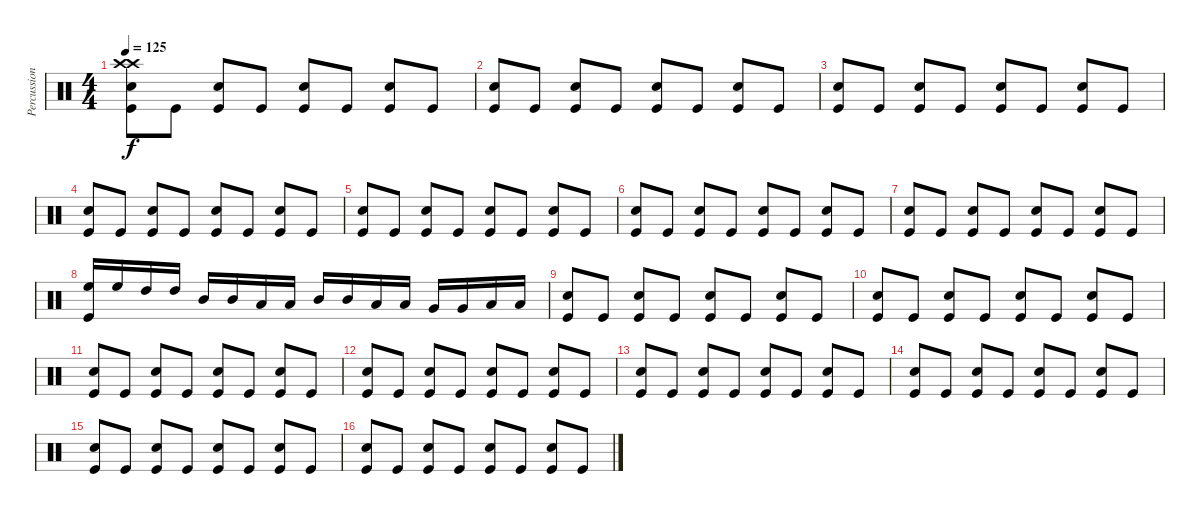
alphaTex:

\track ("Percussion" "Percussion") {instrument percussion}
\staff {score}
\articulation defaults
\ts (4 4)
\tempo 125
\clef neutral
\ks c
("Crash high (hit)" "Crash high (hit)" "Snare (hit) 2" "Kick (hit)").8{dy f} "Kick (hit)".8 ("Snare (hit) 2" "Kick (hit)").8 "Kick (hit)".8 ("Snare (hit) 2" "Kick (hit)").8 "Kick (hit)".8 ("Snare (hit) 2" "Kick (hit)").8 "Kick (hit)".8 |
("Snare (hit) 2" "Kick (hit)").8 "Kick (hit)".8 ("Snare (hit) 2" "Kick (hit)").8 "Kick (hit)".8 ("Snare (hit) 2" "Kick (hit)").8 "Kick (hit)".8 ("Snare (hit) 2" "Kick (hit)").8 "Kick (hit)".8 |
("Snare (hit) 2" "Kick (hit)").8 "Kick (hit)".8 ("Snare (hit) 2" "Kick (hit)").8 "Kick (hit)".8 ("Snare (hit) 2" "Kick (hit)").8 "Kick (hit)".8 ("Snare (hit) 2" "Kick (hit)").8 "Kick (hit)".8 |
("Snare (hit) 2" "Kick (hit)").8 "Kick (hit)".8 ("Snare (hit) 2" "Kick (hit)").8 "Kick (hit)".8 ("Snare (hit) 2" "Kick (hit)").8 "Kick (hit)".8 ("Snare (hit) 2" "Kick (hit)").8 "Kick (hit)".8 |
("Snare (hit) 2" "Kick (hit)").8 "Kick (hit)".8 ("Snare (hit) 2" "Kick (hit)").8 "Kick (hit)".8 ("Snare (hit) 2" "Kick (hit)").8 "Kick (hit)".8 ("Snare (hit) 2" "Kick (hit)").8 "Kick (hit)".8 |
("Snare (hit) 2" "Kick (hit)").8 "Kick (hit)".8 ("Snare (hit) 2" "Kick (hit)").8 "Kick (hit)".8 ("Snare (hit) 2" "Kick (hit)").8 "Kick (hit)".8 ("Snare (hit) 2" "Kick (hit)").8 "Kick (hit)".8 |
("Snare (hit) 2" "Kick (hit)").8 "Kick (hit)".8 ("Snare (hit) 2" "Kick (hit)").8 "Kick (hit)".8 ("Snare (hit) 2" "Kick (hit)").8 "Kick (hit)".8 ("Snare (hit) 2" "Kick (hit)").8 "Kick (hit)".8 |
("High Floor Tom (hit)" "Kick (hit)").16 "High Floor Tom (hit)".16 "High Tom (hit)".16 "High Tom (hit)".16 "Mid Tom (hit)".16 "Mid Tom (hit)".16 "Low Tom (hit)".16 "Low Tom (hit)".16 "Mid Tom (hit)".16 "Mid Tom (hit)".16 "Low Tom (hit)".16 "Low Tom (hit)".16 "Very Low Tom (hit)".16 "Very Low Tom (hit)".16 "Low Floor Tom (hit)".16 "Low Floor Tom (hit)".16 |
("Snare (hit) 2" "Kick (hit)").8 "Kick (hit)".8 ("Snare (hit) 2" "Kick (hit)").8 "Kick (hit)".8 ("Snare (hit) 2" "Kick (hit)").8 "Kick (hit)".8 ("Snare (hit) 2" "Kick (hit)").8 "Kick (hit)".8 |
("Snare (hit) 2" "Kick (hit)").8 "Kick (hit)".8 ("Snare (hit) 2" "Kick (hit)").8 "Kick (hit)".8 ("Snare (hit) 2" "Kick (hit)").8 "Kick (hit)".8 ("Snare (hit) 2" "Kick (hit)").8 "Kick (hit)".8 |
("Snare (hit) 2" "Kick (hit)").8 "Kick (hit)".8 ("Snare (hit) 2" "Kick (hit)").8 "Kick (hit)".8 ("Snare (hit) 2" "Kick (hit)").8 "Kick (hit)".8 ("Snare (hit) 2" "Kick (hit)").8 "Kick (hit)".8 |
("Snare (hit) 2" "Kick (hit)").8 "Kick (hit)".8 ("Snare (hit) 2" "Kick (hit)").8 "Kick (hit)".8 ("Snare (hit) 2" "Kick (hit)").8 "Kick (hit)".8 ("Snare (hit) 2" "Kick (hit)").8 "Kick (hit)".8 |
("Snare (hit) 2" "Kick (hit)").8 "Kick (hit)".8 ("Snare (hit) 2" "Kick (hit)").8 "Kick (hit)".8 ("Snare (hit) 2" "Kick (hit)").8 "Kick (hit)".8 ("Snare (hit) 2" "Kick (hit)").8 "Kick (hit)".8 |
("Snare (hit) 2" "Kick (hit)").8 "Kick (hit)".8 ("Snare (hit) 2" "Kick (hit)").8 "Kick (hit)".8 ("Snare (hit) 2" "Kick (hit)").8 "Kick (hit)".8 ("Snare (hit) 2" "Kick (hit)").8 "Kick (hit)".8 |
("Snare (hit) 2" "Kick (hit)").8 "Kick (hit)".8 ("Snare (hit) 2" "Kick (hit)").8 "Kick (hit)".8 ("Snare (hit) 2" "Kick (hit)").8 "Kick (hit)".8 ("Snare (hit) 2" "Kick (hit)").8 "Kick (hit)".8 |
("Snare (hit) 2" "Kick (hit)").8 "Kick (hit)".8 ("Snare (hit) 2" "Kick (hit)").8 "Kick (hit)".8 ("Snare (hit) 2" "Kick (hit)").8 "Kick (hit)".8 ("Snare (hit) 2" "Kick (hit)").8 "Kick (hit)".8
